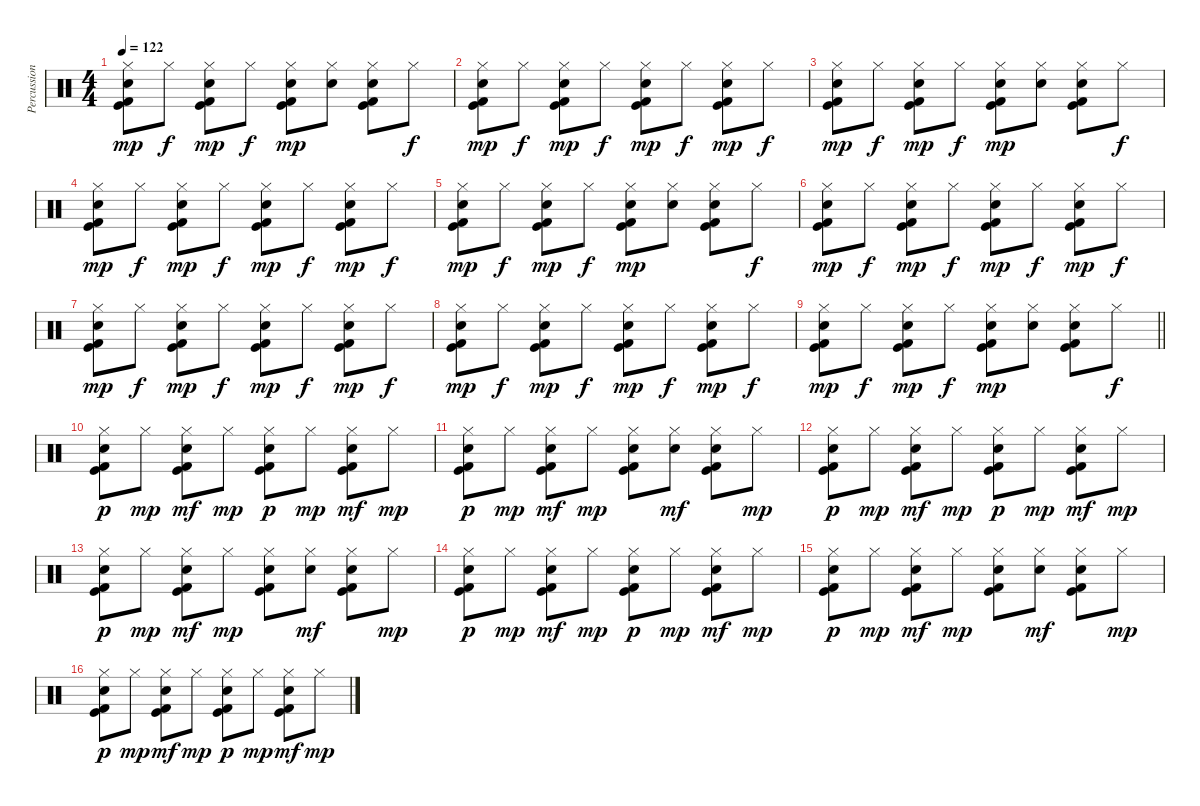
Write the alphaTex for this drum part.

\track ("Percussion" "Percussion") {instrument percussion}
\staff {score}
\articulation defaults
\ts (4 4)
\tempo 122
\clef neutral
\ks c
("Hi-Hat (closed)" "Hand Clap (hit)" "Kick (hit)" "Kick (hit) 2").8{dy mp} "Hi-Hat (closed)".8{dy f} ("Hi-Hat (closed)" "Hand Clap (hit)" "Kick (hit)" "Kick (hit) 2").8{dy mp} "Hi-Hat (closed)".8{dy f} ("Hi-Hat (closed)" "Hand Clap (hit)" "Kick (hit)" "Kick (hit) 2").8{dy mp} ("Hi-Hat (closed)" "Hand Clap (hit)").8 ("Hi-Hat (closed)" "Hand Clap (hit)" "Kick (hit)" "Kick (hit) 2").8 "Hi-Hat (closed)".8{dy f} |
("Hi-Hat (closed)" "Hand Clap (hit)" "Kick (hit)" "Kick (hit) 2").8{dy mp} "Hi-Hat (closed)".8{dy f} ("Hi-Hat (closed)" "Hand Clap (hit)" "Kick (hit)" "Kick (hit) 2").8{dy mp} "Hi-Hat (closed)".8{dy f} ("Hi-Hat (closed)" "Hand Clap (hit)" "Kick (hit)" "Kick (hit) 2").8{dy mp} "Hi-Hat (closed)".8{dy f} ("Hi-Hat (closed)" "Hand Clap (hit)" "Kick (hit)" "Kick (hit) 2").8{dy mp} "Hi-Hat (closed)".8{dy f} |
("Hi-Hat (closed)" "Hand Clap (hit)" "Kick (hit)" "Kick (hit) 2").8{dy mp} "Hi-Hat (closed)".8{dy f} ("Hi-Hat (closed)" "Hand Clap (hit)" "Kick (hit)" "Kick (hit) 2").8{dy mp} "Hi-Hat (closed)".8{dy f} ("Hi-Hat (closed)" "Hand Clap (hit)" "Kick (hit)" "Kick (hit) 2").8{dy mp} ("Hi-Hat (closed)" "Hand Clap (hit)").8 ("Hi-Hat (closed)" "Hand Clap (hit)" "Kick (hit)" "Kick (hit) 2").8 "Hi-Hat (closed)".8{dy f} |
("Hi-Hat (closed)" "Hand Clap (hit)" "Kick (hit)" "Kick (hit) 2").8{dy mp} "Hi-Hat (closed)".8{dy f} ("Hi-Hat (closed)" "Hand Clap (hit)" "Kick (hit)" "Kick (hit) 2").8{dy mp} "Hi-Hat (closed)".8{dy f} ("Hi-Hat (closed)" "Hand Clap (hit)" "Kick (hit)" "Kick (hit) 2").8{dy mp} "Hi-Hat (closed)".8{dy f} ("Hi-Hat (closed)" "Hand Clap (hit)" "Kick (hit)" "Kick (hit) 2").8{dy mp} "Hi-Hat (closed)".8{dy f} |
("Hi-Hat (closed)" "Hand Clap (hit)" "Kick (hit)" "Kick (hit) 2").8{dy mp} "Hi-Hat (closed)".8{dy f} ("Hi-Hat (closed)" "Hand Clap (hit)" "Kick (hit)" "Kick (hit) 2").8{dy mp} "Hi-Hat (closed)".8{dy f} ("Hi-Hat (closed)" "Hand Clap (hit)" "Kick (hit)" "Kick (hit) 2").8{dy mp} ("Hi-Hat (closed)" "Hand Clap (hit)").8 ("Hi-Hat (closed)" "Hand Clap (hit)" "Kick (hit)" "Kick (hit) 2").8 "Hi-Hat (closed)".8{dy f} |
("Hi-Hat (closed)" "Hand Clap (hit)" "Kick (hit)" "Kick (hit) 2").8{dy mp} "Hi-Hat (closed)".8{dy f} ("Hi-Hat (closed)" "Hand Clap (hit)" "Kick (hit)" "Kick (hit) 2").8{dy mp} "Hi-Hat (closed)".8{dy f} ("Hi-Hat (closed)" "Hand Clap (hit)" "Kick (hit)" "Kick (hit) 2").8{dy mp} "Hi-Hat (closed)".8{dy f} ("Hi-Hat (closed)" "Hand Clap (hit)" "Kick (hit)" "Kick (hit) 2").8{dy mp} "Hi-Hat (closed)".8{dy f} |
("Hi-Hat (closed)" "Hand Clap (hit)" "Kick (hit)" "Kick (hit) 2").8{dy mp} "Hi-Hat (closed)".8{dy f} ("Hi-Hat (closed)" "Hand Clap (hit)" "Kick (hit)" "Kick (hit) 2").8{dy mp} "Hi-Hat (closed)".8{dy f} ("Hi-Hat (closed)" "Hand Clap (hit)" "Kick (hit)" "Kick (hit) 2").8{dy mp} "Hi-Hat (closed)".8{dy f} ("Hi-Hat (closed)" "Hand Clap (hit)" "Kick (hit)" "Kick (hit) 2").8{dy mp} "Hi-Hat (closed)".8{dy f} |
("Hi-Hat (closed)" "Hand Clap (hit)" "Kick (hit)" "Kick (hit) 2").8{dy mp} "Hi-Hat (closed)".8{dy f} ("Hi-Hat (closed)" "Hand Clap (hit)" "Kick (hit)" "Kick (hit) 2").8{dy mp} "Hi-Hat (closed)".8{dy f} ("Hi-Hat (closed)" "Hand Clap (hit)" "Kick (hit)" "Kick (hit) 2").8{dy mp} "Hi-Hat (closed)".8{dy f} ("Hi-Hat (closed)" "Hand Clap (hit)" "Kick (hit)" "Kick (hit) 2").8{dy mp} "Hi-Hat (closed)".8{dy f} |
\barLineRight lightlight
("Hi-Hat (closed)" "Hand Clap (hit)" "Kick (hit)" "Kick (hit) 2").8{dy mp} "Hi-Hat (closed)".8{dy f} ("Hi-Hat (closed)" "Hand Clap (hit)" "Kick (hit)" "Kick (hit) 2").8{dy mp} "Hi-Hat (closed)".8{dy f} ("Hi-Hat (closed)" "Hand Clap (hit)" "Kick (hit)" "Kick (hit) 2").8{dy mp} ("Hi-Hat (closed)" "Hand Clap (hit)").8 ("Hi-Hat (closed)" "Hand Clap (hit)" "Kick (hit)" "Kick (hit) 2").8 "Hi-Hat (closed)".8{dy f} |
\section ("" "")
("Hi-Hat (closed)" "Hand Clap (hit)" "Kick (hit)" "Kick (hit) 2").8{dy p} "Hi-Hat (closed)".8{dy mp} ("Hi-Hat (closed)" "Hand Clap (hit)" "Kick (hit)" "Kick (hit) 2").8{dy mf} "Hi-Hat (closed)".8{dy mp} ("Hi-Hat (closed)" "Hand Clap (hit)" "Kick (hit)" "Kick (hit) 2").8{dy p} "Hi-Hat (closed)".8{dy mp} ("Hi-Hat (closed)" "Hand Clap (hit)" "Kick (hit)" "Kick (hit) 2").8{dy mf} "Hi-Hat (closed)".8{dy mp} |
("Hi-Hat (closed)" "Hand Clap (hit)" "Kick (hit)" "Kick (hit) 2").8{dy p} "Hi-Hat (closed)".8{dy mp} ("Hi-Hat (closed)" "Hand Clap (hit)" "Kick (hit)" "Kick (hit) 2").8{dy mf} "Hi-Hat (closed)".8{dy mp} ("Hi-Hat (closed)" "Hand Clap (hit)" "Kick (hit)" "Kick (hit) 2").8 ("Hi-Hat (closed)" "Hand Clap (hit)").8{dy mf} ("Hi-Hat (closed)" "Hand Clap (hit)" "Kick (hit)" "Kick (hit) 2").8 "Hi-Hat (closed)".8{dy mp} |
("Hi-Hat (closed)" "Hand Clap (hit)" "Kick (hit)" "Kick (hit) 2").8{dy p} "Hi-Hat (closed)".8{dy mp} ("Hi-Hat (closed)" "Hand Clap (hit)" "Kick (hit)" "Kick (hit) 2").8{dy mf} "Hi-Hat (closed)".8{dy mp} ("Hi-Hat (closed)" "Hand Clap (hit)" "Kick (hit)" "Kick (hit) 2").8{dy p} "Hi-Hat (closed)".8{dy mp} ("Hi-Hat (closed)" "Hand Clap (hit)" "Kick (hit)" "Kick (hit) 2").8{dy mf} "Hi-Hat (closed)".8{dy mp} |
("Hi-Hat (closed)" "Hand Clap (hit)" "Kick (hit)" "Kick (hit) 2").8{dy p} "Hi-Hat (closed)".8{dy mp} ("Hi-Hat (closed)" "Hand Clap (hit)" "Kick (hit)" "Kick (hit) 2").8{dy mf} "Hi-Hat (closed)".8{dy mp} ("Hi-Hat (closed)" "Hand Clap (hit)" "Kick (hit)" "Kick (hit) 2").8 ("Hi-Hat (closed)" "Hand Clap (hit)").8{dy mf} ("Hi-Hat (closed)" "Hand Clap (hit)" "Kick (hit)" "Kick (hit) 2").8 "Hi-Hat (closed)".8{dy mp} |
("Hi-Hat (closed)" "Hand Clap (hit)" "Kick (hit)" "Kick (hit) 2").8{dy p} "Hi-Hat (closed)".8{dy mp} ("Hi-Hat (closed)" "Hand Clap (hit)" "Kick (hit)" "Kick (hit) 2").8{dy mf} "Hi-Hat (closed)".8{dy mp} ("Hi-Hat (closed)" "Hand Clap (hit)" "Kick (hit)" "Kick (hit) 2").8{dy p} "Hi-Hat (closed)".8{dy mp} ("Hi-Hat (closed)" "Hand Clap (hit)" "Kick (hit)" "Kick (hit) 2").8{dy mf} "Hi-Hat (closed)".8{dy mp} |
("Hi-Hat (closed)" "Hand Clap (hit)" "Kick (hit)" "Kick (hit) 2").8{dy p} "Hi-Hat (closed)".8{dy mp} ("Hi-Hat (closed)" "Hand Clap (hit)" "Kick (hit)" "Kick (hit) 2").8{dy mf} "Hi-Hat (closed)".8{dy mp} ("Hi-Hat (closed)" "Hand Clap (hit)" "Kick (hit)" "Kick (hit) 2").8 ("Hi-Hat (closed)" "Hand Clap (hit)").8{dy mf} ("Hi-Hat (closed)" "Hand Clap (hit)" "Kick (hit)" "Kick (hit) 2").8 "Hi-Hat (closed)".8{dy mp} |
("Hi-Hat (closed)" "Hand Clap (hit)" "Kick (hit)" "Kick (hit) 2").8{dy p} "Hi-Hat (closed)".8{dy mp} ("Hi-Hat (closed)" "Hand Clap (hit)" "Kick (hit)" "Kick (hit) 2").8{dy mf} "Hi-Hat (closed)".8{dy mp} ("Hi-Hat (closed)" "Hand Clap (hit)" "Kick (hit)" "Kick (hit) 2").8{dy p} "Hi-Hat (closed)".8{dy mp} ("Hi-Hat (closed)" "Hand Clap (hit)" "Kick (hit)" "Kick (hit) 2").8{dy mf} "Hi-Hat (closed)".8{dy mp}
